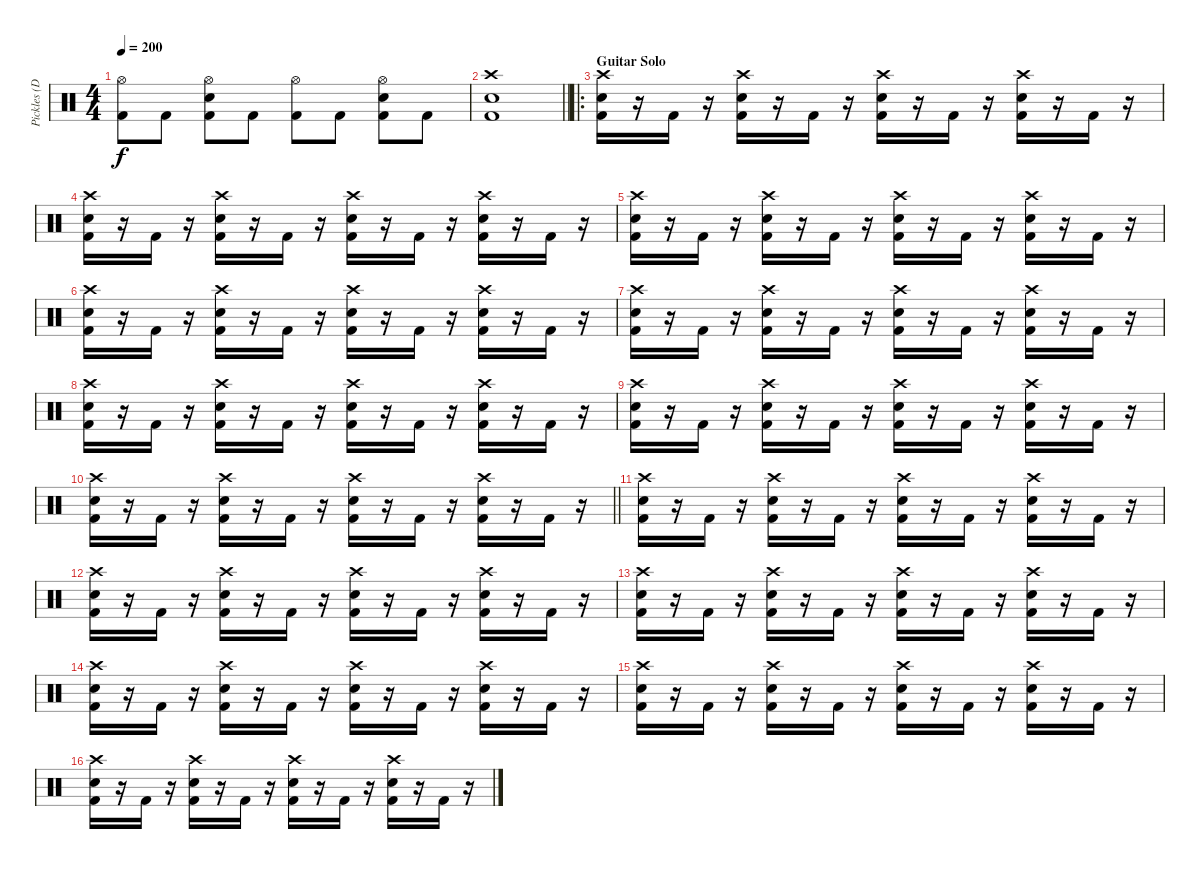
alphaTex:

\track ("Pickles (Drums)" "Pickles (D") {instrument percussion}
\staff {score}
\articulation defaults
\ts (4 4)
\tempo 200
\clef neutral
\ks c
("Hi-Hat (open)" "Kick (hit) 2").8{dy f} "Kick (hit) 2".8 ("Hi-Hat (open)" "Electric Snare (hit)" "Kick (hit) 2").8 "Kick (hit) 2".8 ("Hi-Hat (open)" "Kick (hit) 2").8 "Kick (hit) 2".8 ("Hi-Hat (open)" "Electric Snare (hit)" "Kick (hit) 2").8 "Kick (hit) 2".8 |
\barLineRight lightlight
("Crash high (hit)" "Electric Snare (hit)" "Kick (hit) 2").1 |
\ro
\section ("" "Guitar Solo")
("Crash high (hit)" "Electric Snare (hit)" "Kick (hit) 2").16 r.16 "Kick (hit) 2".16 r.16 ("Crash high (hit)" "Electric Snare (hit)" "Kick (hit) 2").16 r.16 "Kick (hit) 2".16 r.16 ("Crash high (hit)" "Electric Snare (hit)" "Kick (hit) 2").16 r.16 "Kick (hit) 2".16 r.16 ("Crash high (hit)" "Electric Snare (hit)" "Kick (hit) 2").16 r.16 "Kick (hit) 2".16 r.16 |
("Crash high (hit)" "Electric Snare (hit)" "Kick (hit) 2").16 r.16 "Kick (hit) 2".16 r.16 ("Crash high (hit)" "Electric Snare (hit)" "Kick (hit) 2").16 r.16 "Kick (hit) 2".16 r.16 ("Crash high (hit)" "Electric Snare (hit)" "Kick (hit) 2").16 r.16 "Kick (hit) 2".16 r.16 ("Crash high (hit)" "Electric Snare (hit)" "Kick (hit) 2").16 r.16 "Kick (hit) 2".16 r.16 |
("Crash high (hit)" "Electric Snare (hit)" "Kick (hit) 2").16 r.16 "Kick (hit) 2".16 r.16 ("Crash high (hit)" "Electric Snare (hit)" "Kick (hit) 2").16 r.16 "Kick (hit) 2".16 r.16 ("Crash high (hit)" "Electric Snare (hit)" "Kick (hit) 2").16 r.16 "Kick (hit) 2".16 r.16 ("Crash high (hit)" "Electric Snare (hit)" "Kick (hit) 2").16 r.16 "Kick (hit) 2".16 r.16 |
("Crash high (hit)" "Electric Snare (hit)" "Kick (hit) 2").16 r.16 "Kick (hit) 2".16 r.16 ("Crash high (hit)" "Electric Snare (hit)" "Kick (hit) 2").16 r.16 "Kick (hit) 2".16 r.16 ("Crash high (hit)" "Electric Snare (hit)" "Kick (hit) 2").16 r.16 "Kick (hit) 2".16 r.16 ("Crash high (hit)" "Electric Snare (hit)" "Kick (hit) 2").16 r.16 "Kick (hit) 2".16 r.16 |
("Crash high (hit)" "Electric Snare (hit)" "Kick (hit) 2").16 r.16 "Kick (hit) 2".16 r.16 ("Crash high (hit)" "Electric Snare (hit)" "Kick (hit) 2").16 r.16 "Kick (hit) 2".16 r.16 ("Crash high (hit)" "Electric Snare (hit)" "Kick (hit) 2").16 r.16 "Kick (hit) 2".16 r.16 ("Crash high (hit)" "Electric Snare (hit)" "Kick (hit) 2").16 r.16 "Kick (hit) 2".16 r.16 |
("Crash high (hit)" "Electric Snare (hit)" "Kick (hit) 2").16 r.16 "Kick (hit) 2".16 r.16 ("Crash high (hit)" "Electric Snare (hit)" "Kick (hit) 2").16 r.16 "Kick (hit) 2".16 r.16 ("Crash high (hit)" "Electric Snare (hit)" "Kick (hit) 2").16 r.16 "Kick (hit) 2".16 r.16 ("Crash high (hit)" "Electric Snare (hit)" "Kick (hit) 2").16 r.16 "Kick (hit) 2".16 r.16 |
("Crash high (hit)" "Electric Snare (hit)" "Kick (hit) 2").16 r.16 "Kick (hit) 2".16 r.16 ("Crash high (hit)" "Electric Snare (hit)" "Kick (hit) 2").16 r.16 "Kick (hit) 2".16 r.16 ("Crash high (hit)" "Electric Snare (hit)" "Kick (hit) 2").16 r.16 "Kick (hit) 2".16 r.16 ("Crash high (hit)" "Electric Snare (hit)" "Kick (hit) 2").16 r.16 "Kick (hit) 2".16 r.16 |
\barLineRight lightlight
("Crash high (hit)" "Electric Snare (hit)" "Kick (hit) 2").16 r.16 "Kick (hit) 2".16 r.16 ("Crash high (hit)" "Electric Snare (hit)" "Kick (hit) 2").16 r.16 "Kick (hit) 2".16 r.16 ("Crash high (hit)" "Electric Snare (hit)" "Kick (hit) 2").16 r.16 "Kick (hit) 2".16 r.16 ("Crash high (hit)" "Electric Snare (hit)" "Kick (hit) 2").16 r.16 "Kick (hit) 2".16 r.16 |
("Crash high (hit)" "Electric Snare (hit)" "Kick (hit) 2").16 r.16 "Kick (hit) 2".16 r.16 ("Crash high (hit)" "Electric Snare (hit)" "Kick (hit) 2").16 r.16 "Kick (hit) 2".16 r.16 ("Crash high (hit)" "Electric Snare (hit)" "Kick (hit) 2").16 r.16 "Kick (hit) 2".16 r.16 ("Crash high (hit)" "Electric Snare (hit)" "Kick (hit) 2").16 r.16 "Kick (hit) 2".16 r.16 |
("Crash high (hit)" "Electric Snare (hit)" "Kick (hit) 2").16 r.16 "Kick (hit) 2".16 r.16 ("Crash high (hit)" "Electric Snare (hit)" "Kick (hit) 2").16 r.16 "Kick (hit) 2".16 r.16 ("Crash high (hit)" "Electric Snare (hit)" "Kick (hit) 2").16 r.16 "Kick (hit) 2".16 r.16 ("Crash high (hit)" "Electric Snare (hit)" "Kick (hit) 2").16 r.16 "Kick (hit) 2".16 r.16 |
("Crash high (hit)" "Electric Snare (hit)" "Kick (hit) 2").16 r.16 "Kick (hit) 2".16 r.16 ("Crash high (hit)" "Electric Snare (hit)" "Kick (hit) 2").16 r.16 "Kick (hit) 2".16 r.16 ("Crash high (hit)" "Electric Snare (hit)" "Kick (hit) 2").16 r.16 "Kick (hit) 2".16 r.16 ("Crash high (hit)" "Electric Snare (hit)" "Kick (hit) 2").16 r.16 "Kick (hit) 2".16 r.16 |
("Crash high (hit)" "Electric Snare (hit)" "Kick (hit) 2").16 r.16 "Kick (hit) 2".16 r.16 ("Crash high (hit)" "Electric Snare (hit)" "Kick (hit) 2").16 r.16 "Kick (hit) 2".16 r.16 ("Crash high (hit)" "Electric Snare (hit)" "Kick (hit) 2").16 r.16 "Kick (hit) 2".16 r.16 ("Crash high (hit)" "Electric Snare (hit)" "Kick (hit) 2").16 r.16 "Kick (hit) 2".16 r.16 |
("Crash high (hit)" "Electric Snare (hit)" "Kick (hit) 2").16 r.16 "Kick (hit) 2".16 r.16 ("Crash high (hit)" "Electric Snare (hit)" "Kick (hit) 2").16 r.16 "Kick (hit) 2".16 r.16 ("Crash high (hit)" "Electric Snare (hit)" "Kick (hit) 2").16 r.16 "Kick (hit) 2".16 r.16 ("Crash high (hit)" "Electric Snare (hit)" "Kick (hit) 2").16 r.16 "Kick (hit) 2".16 r.16 |
("Crash high (hit)" "Electric Snare (hit)" "Kick (hit) 2").16 r.16 "Kick (hit) 2".16 r.16 ("Crash high (hit)" "Electric Snare (hit)" "Kick (hit) 2").16 r.16 "Kick (hit) 2".16 r.16 ("Crash high (hit)" "Electric Snare (hit)" "Kick (hit) 2").16 r.16 "Kick (hit) 2".16 r.16 ("Crash high (hit)" "Electric Snare (hit)" "Kick (hit) 2").16 r.16 "Kick (hit) 2".16 r.16
